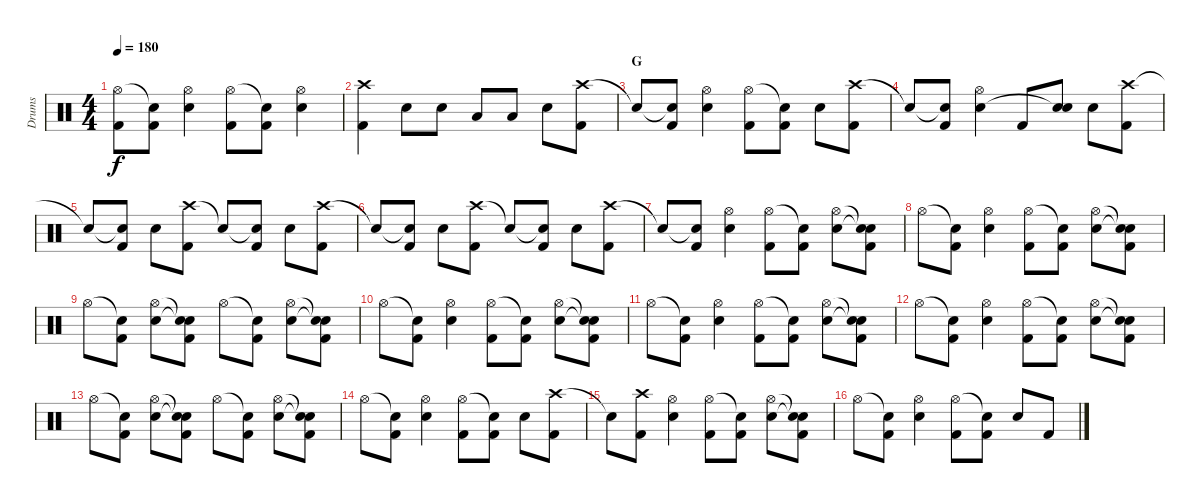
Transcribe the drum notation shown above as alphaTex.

\track ("Drums" "Drums") {instrument percussion}
\staff {score}
\articulation defaults
\ts (4 4)
\tempo 180
\clef neutral
\ks c
("Hi-Hat (open)" "Kick (hit) 2").8{dy f} ("Snare (hit)"{t} "Kick (hit) 2").8 ("Hi-Hat (open)" "Snare (hit) 2").4 ("Hi-Hat (open)" "Kick (hit) 2").8 ("Snare (hit)"{t} "Kick (hit) 2").8 ("Hi-Hat (open)" "Snare (hit) 2").4 |
("Crash high (hit)" "Kick (hit) 2").4 "Snare (hit) 2".8 "Snare (hit) 2".8 "Low Tom (hit)".8 "Low Tom (hit)".8 "Snare (hit) 2".8 ("Crash high (hit)" "Kick (hit) 2").8 |
\section ("" "G")
"Snare (hit)"{t}.8 ("Snare (hit)"{t} "Kick (hit) 2").8 ("Hi-Hat (open)" "Snare (hit) 2").4 ("Hi-Hat (open)" "Kick (hit) 2").8 ("Snare (hit)"{t} "Kick (hit) 2").8 "Snare (hit) 2".8 ("Crash high (hit)" "Kick (hit) 2").8 |
"Snare (hit)"{t}.8 ("Snare (hit)"{t} "Kick (hit) 2").8 ("Hi-Hat (open)" "Snare (hit) 2").4 "Kick (hit) 2".8 ("Snare (hit) 2" "Snare (hit)"{t}).8 "Snare (hit) 2".8 ("Crash high (hit)" "Kick (hit) 2").8 |
"Snare (hit)"{t}.8 ("Snare (hit)"{t} "Kick (hit) 2").8 "Snare (hit) 2".8 ("Crash high (hit)" "Kick (hit) 2").8 "Snare (hit)"{t}.8 ("Snare (hit)"{t} "Kick (hit) 2").8 "Snare (hit) 2".8 ("Crash high (hit)" "Kick (hit) 2").8 |
"Snare (hit)"{t}.8 ("Snare (hit)"{t} "Kick (hit) 2").8 "Snare (hit) 2".8 ("Crash high (hit)" "Kick (hit) 2").8 "Snare (hit)"{t}.8 ("Snare (hit)"{t} "Kick (hit) 2").8 "Snare (hit) 2".8 ("Crash high (hit)" "Kick (hit) 2").8 |
"Snare (hit)"{t}.8 ("Snare (hit)"{t} "Kick (hit) 2").8 ("Hi-Hat (open)" "Snare (hit) 2").4 ("Hi-Hat (open)" "Kick (hit) 2").8 ("Snare (hit)"{t} "Kick (hit) 2").8 ("Hi-Hat (open)" "Snare (hit) 2").8 ("Snare (hit)"{t} "Snare (hit)"{t} "Kick (hit) 2").8 |
"Hi-Hat (open)".8 ("Snare (hit)"{t} "Kick (hit) 2").8 ("Hi-Hat (open)" "Snare (hit) 2").4 ("Hi-Hat (open)" "Kick (hit) 2").8 ("Snare (hit)"{t} "Kick (hit) 2").8 ("Hi-Hat (open)" "Snare (hit) 2").8 ("Snare (hit)"{t} "Snare (hit)"{t} "Kick (hit) 2").8 |
"Hi-Hat (open)".8 ("Snare (hit)"{t} "Kick (hit) 2").8 ("Hi-Hat (open)" "Snare (hit) 2").8 ("Snare (hit)"{t} "Snare (hit)"{t} "Kick (hit) 2").8 "Hi-Hat (open)".8 ("Snare (hit)"{t} "Kick (hit) 2").8 ("Hi-Hat (open)" "Snare (hit) 2").8 ("Snare (hit)"{t} "Snare (hit)"{t} "Kick (hit) 2").8 |
"Hi-Hat (open)".8 ("Snare (hit)"{t} "Kick (hit) 2").8 ("Hi-Hat (open)" "Snare (hit) 2").4 ("Hi-Hat (open)" "Kick (hit) 2").8 ("Snare (hit)"{t} "Kick (hit) 2").8 ("Hi-Hat (open)" "Snare (hit) 2").8 ("Snare (hit)"{t} "Snare (hit)"{t} "Kick (hit) 2").8 |
"Hi-Hat (open)".8 ("Snare (hit)"{t} "Kick (hit) 2").8 ("Hi-Hat (open)" "Snare (hit) 2").4 ("Hi-Hat (open)" "Kick (hit) 2").8 ("Snare (hit)"{t} "Kick (hit) 2").8 ("Hi-Hat (open)" "Snare (hit) 2").8 ("Snare (hit)"{t} "Snare (hit)"{t} "Kick (hit) 2").8 |
"Hi-Hat (open)".8 ("Snare (hit)"{t} "Kick (hit) 2").8 ("Hi-Hat (open)" "Snare (hit) 2").4 ("Hi-Hat (open)" "Kick (hit) 2").8 ("Snare (hit)"{t} "Kick (hit) 2").8 ("Hi-Hat (open)" "Snare (hit) 2").8 ("Snare (hit)"{t} "Snare (hit)"{t} "Kick (hit) 2").8 |
"Hi-Hat (open)".8 ("Snare (hit)"{t} "Kick (hit) 2").8 ("Hi-Hat (open)" "Snare (hit) 2").8 ("Snare (hit)"{t} "Snare (hit)"{t} "Kick (hit) 2").8 "Hi-Hat (open)".8 ("Snare (hit)"{t} "Kick (hit) 2").8 ("Hi-Hat (open)" "Snare (hit) 2").8 ("Snare (hit)"{t} "Snare (hit)"{t} "Kick (hit) 2").8 |
"Hi-Hat (open)".8 ("Snare (hit)"{t} "Kick (hit) 2").8 ("Hi-Hat (open)" "Snare (hit) 2").4 ("Hi-Hat (open)" "Kick (hit) 2").8 ("Snare (hit)"{t} "Kick (hit) 2").8 "Snare (hit) 2".8 ("Crash high (hit)" "Kick (hit) 2").8 |
"Snare (hit)"{t}.8 ("Crash high (hit)" "Kick (hit) 2").8 ("Hi-Hat (open)" "Snare (hit) 2").4 ("Hi-Hat (open)" "Kick (hit) 2").8 ("Snare (hit)"{t} "Kick (hit) 2").8 ("Hi-Hat (open)" "Snare (hit) 2").8 ("Snare (hit)"{t} "Snare (hit)"{t} "Kick (hit) 2").8 |
"Hi-Hat (open)".8 ("Snare (hit)"{t} "Kick (hit) 2").8 ("Hi-Hat (open)" "Snare (hit) 2").4 ("Hi-Hat (open)" "Kick (hit) 2").8 ("Snare (hit)"{t} "Kick (hit) 2").8 "Snare (hit) 2".8 "Kick (hit) 2".8
